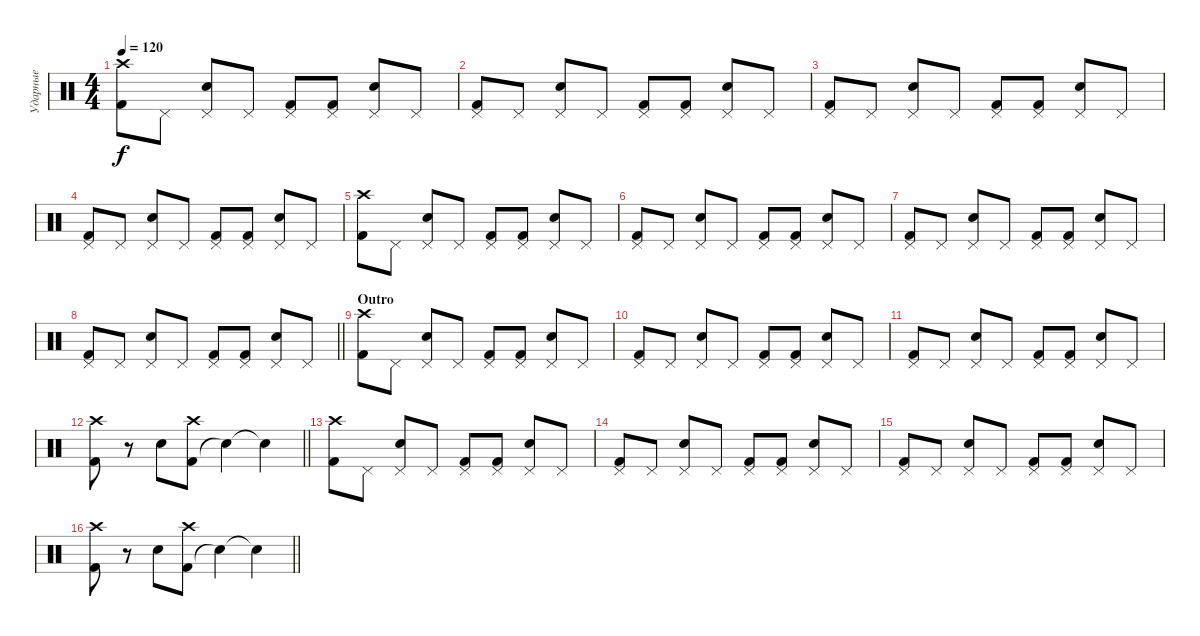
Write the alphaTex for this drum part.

\track ("Ударные" "Ударные") {instrument percussion}
\staff {score}
\articulation defaults
\ts (4 4)
\tempo 120
\clef neutral
\ks c
("Kick (hit) 2" "Crash high (hit)").8{dy f} "Pedal Hi-Hat (hit)".8 ("Electric Snare (hit)" "Pedal Hi-Hat (hit)").8 "Pedal Hi-Hat (hit)".8 ("Kick (hit) 2" "Pedal Hi-Hat (hit)").8 ("Kick (hit) 2" "Pedal Hi-Hat (hit)").8 ("Electric Snare (hit)" "Pedal Hi-Hat (hit)").8 "Pedal Hi-Hat (hit)".8 |
("Kick (hit) 2" "Pedal Hi-Hat (hit)").8 "Pedal Hi-Hat (hit)".8 ("Electric Snare (hit)" "Pedal Hi-Hat (hit)").8 "Pedal Hi-Hat (hit)".8 ("Kick (hit) 2" "Pedal Hi-Hat (hit)").8 ("Kick (hit) 2" "Pedal Hi-Hat (hit)").8 ("Electric Snare (hit)" "Pedal Hi-Hat (hit)").8 "Pedal Hi-Hat (hit)".8 |
("Kick (hit) 2" "Pedal Hi-Hat (hit)").8 "Pedal Hi-Hat (hit)".8 ("Electric Snare (hit)" "Pedal Hi-Hat (hit)").8 "Pedal Hi-Hat (hit)".8 ("Kick (hit) 2" "Pedal Hi-Hat (hit)").8 ("Kick (hit) 2" "Pedal Hi-Hat (hit)").8 ("Electric Snare (hit)" "Pedal Hi-Hat (hit)").8 "Pedal Hi-Hat (hit)".8 |
("Kick (hit) 2" "Pedal Hi-Hat (hit)").8 "Pedal Hi-Hat (hit)".8 ("Electric Snare (hit)" "Pedal Hi-Hat (hit)").8 "Pedal Hi-Hat (hit)".8 ("Kick (hit) 2" "Pedal Hi-Hat (hit)").8 ("Kick (hit) 2" "Pedal Hi-Hat (hit)").8 ("Electric Snare (hit)" "Pedal Hi-Hat (hit)").8 "Pedal Hi-Hat (hit)".8 |
("Kick (hit) 2" "Crash high (hit)").8 "Pedal Hi-Hat (hit)".8 ("Electric Snare (hit)" "Pedal Hi-Hat (hit)").8 "Pedal Hi-Hat (hit)".8 ("Kick (hit) 2" "Pedal Hi-Hat (hit)").8 ("Kick (hit) 2" "Pedal Hi-Hat (hit)").8 ("Electric Snare (hit)" "Pedal Hi-Hat (hit)").8 "Pedal Hi-Hat (hit)".8 |
("Kick (hit) 2" "Pedal Hi-Hat (hit)").8 "Pedal Hi-Hat (hit)".8 ("Electric Snare (hit)" "Pedal Hi-Hat (hit)").8 "Pedal Hi-Hat (hit)".8 ("Kick (hit) 2" "Pedal Hi-Hat (hit)").8 ("Kick (hit) 2" "Pedal Hi-Hat (hit)").8 ("Electric Snare (hit)" "Pedal Hi-Hat (hit)").8 "Pedal Hi-Hat (hit)".8 |
("Kick (hit) 2" "Pedal Hi-Hat (hit)").8 "Pedal Hi-Hat (hit)".8 ("Electric Snare (hit)" "Pedal Hi-Hat (hit)").8 "Pedal Hi-Hat (hit)".8 ("Kick (hit) 2" "Pedal Hi-Hat (hit)").8 ("Kick (hit) 2" "Pedal Hi-Hat (hit)").8 ("Electric Snare (hit)" "Pedal Hi-Hat (hit)").8 "Pedal Hi-Hat (hit)".8 |
\barLineRight lightlight
("Kick (hit) 2" "Pedal Hi-Hat (hit)").8 "Pedal Hi-Hat (hit)".8 ("Electric Snare (hit)" "Pedal Hi-Hat (hit)").8 "Pedal Hi-Hat (hit)".8 ("Kick (hit) 2" "Pedal Hi-Hat (hit)").8 ("Kick (hit) 2" "Pedal Hi-Hat (hit)").8 ("Electric Snare (hit)" "Pedal Hi-Hat (hit)").8 "Pedal Hi-Hat (hit)".8 |
\section ("" "Outro")
("Kick (hit) 2" "Crash high (hit)").8 "Pedal Hi-Hat (hit)".8 ("Electric Snare (hit)" "Pedal Hi-Hat (hit)").8 "Pedal Hi-Hat (hit)".8 ("Kick (hit) 2" "Pedal Hi-Hat (hit)").8 ("Kick (hit) 2" "Pedal Hi-Hat (hit)").8 ("Electric Snare (hit)" "Pedal Hi-Hat (hit)").8 "Pedal Hi-Hat (hit)".8 |
("Kick (hit) 2" "Pedal Hi-Hat (hit)").8 "Pedal Hi-Hat (hit)".8 ("Electric Snare (hit)" "Pedal Hi-Hat (hit)").8 "Pedal Hi-Hat (hit)".8 ("Kick (hit) 2" "Pedal Hi-Hat (hit)").8 ("Kick (hit) 2" "Pedal Hi-Hat (hit)").8 ("Electric Snare (hit)" "Pedal Hi-Hat (hit)").8 "Pedal Hi-Hat (hit)".8 |
("Kick (hit) 2" "Pedal Hi-Hat (hit)").8 "Pedal Hi-Hat (hit)".8 ("Electric Snare (hit)" "Pedal Hi-Hat (hit)").8 "Pedal Hi-Hat (hit)".8 ("Kick (hit) 2" "Pedal Hi-Hat (hit)").8 ("Kick (hit) 2" "Pedal Hi-Hat (hit)").8 ("Electric Snare (hit)" "Pedal Hi-Hat (hit)").8 "Pedal Hi-Hat (hit)".8 |
\barLineRight lightlight
("Kick (hit) 2" "Crash high (hit)").8 r.8 "Electric Snare (hit)".8 ("Kick (hit) 2" "Crash high (hit)").8 "Snare (hit)"{t}.4 "Snare (hit)"{t}.4 |
("Kick (hit) 2" "Crash high (hit)").8 "Pedal Hi-Hat (hit)".8 ("Electric Snare (hit)" "Pedal Hi-Hat (hit)").8 "Pedal Hi-Hat (hit)".8 ("Kick (hit) 2" "Pedal Hi-Hat (hit)").8 ("Kick (hit) 2" "Pedal Hi-Hat (hit)").8 ("Electric Snare (hit)" "Pedal Hi-Hat (hit)").8 "Pedal Hi-Hat (hit)".8 |
("Kick (hit) 2" "Pedal Hi-Hat (hit)").8 "Pedal Hi-Hat (hit)".8 ("Electric Snare (hit)" "Pedal Hi-Hat (hit)").8 "Pedal Hi-Hat (hit)".8 ("Kick (hit) 2" "Pedal Hi-Hat (hit)").8 ("Kick (hit) 2" "Pedal Hi-Hat (hit)").8 ("Electric Snare (hit)" "Pedal Hi-Hat (hit)").8 "Pedal Hi-Hat (hit)".8 |
("Kick (hit) 2" "Pedal Hi-Hat (hit)").8 "Pedal Hi-Hat (hit)".8 ("Electric Snare (hit)" "Pedal Hi-Hat (hit)").8 "Pedal Hi-Hat (hit)".8 ("Kick (hit) 2" "Pedal Hi-Hat (hit)").8 ("Kick (hit) 2" "Pedal Hi-Hat (hit)").8 ("Electric Snare (hit)" "Pedal Hi-Hat (hit)").8 "Pedal Hi-Hat (hit)".8 |
\barLineRight lightlight
("Kick (hit) 2" "Crash high (hit)").8 r.8 "Electric Snare (hit)".8 ("Kick (hit) 2" "Crash high (hit)").8 "Snare (hit)"{t}.4 "Snare (hit)"{t}.4
